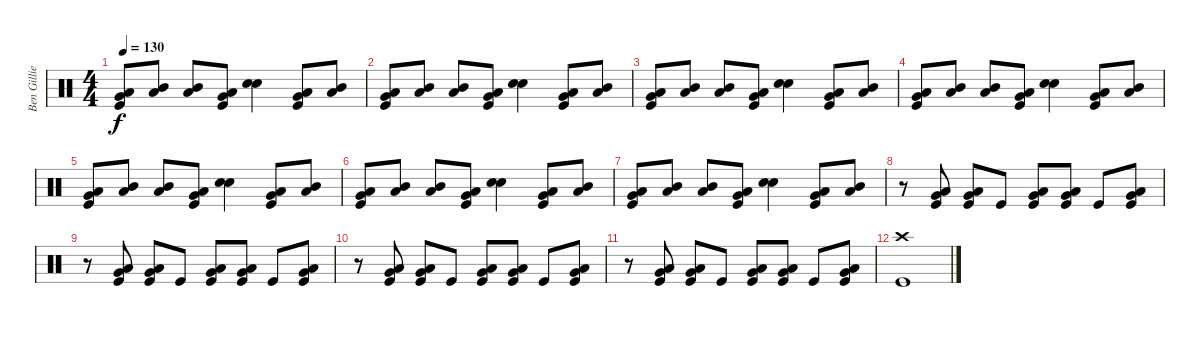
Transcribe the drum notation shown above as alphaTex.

\track ("Ben Gillies" "Ben Gillie") {instrument percussion}
\staff {score}
\articulation defaults
\ts (4 4)
\tempo 130
\clef neutral
\ks c
("Kick (hit)" "Very Low Tom (hit)" "Low Tom (hit)").8{dy f} ("Low Tom (hit)" "Mid Tom (hit)").8 ("Low Tom (hit)" "Mid Tom (hit)").8 ("Kick (hit)" "Very Low Tom (hit)" "Low Tom (hit)").8 ("Snare (hit) 2" "Snare (hit) 2").4{bu 60} ("Kick (hit)" "Very Low Tom (hit)" "Low Tom (hit)").8 ("Low Tom (hit)" "Mid Tom (hit)").8 |
("Kick (hit)" "Very Low Tom (hit)" "Low Tom (hit)").8 ("Low Tom (hit)" "Mid Tom (hit)").8 ("Low Tom (hit)" "Mid Tom (hit)").8 ("Kick (hit)" "Very Low Tom (hit)" "Low Tom (hit)").8 ("Snare (hit) 2" "Snare (hit) 2").4{bu 60} ("Kick (hit)" "Very Low Tom (hit)" "Low Tom (hit)").8 ("Low Tom (hit)" "Mid Tom (hit)").8 |
("Kick (hit)" "Very Low Tom (hit)" "Low Tom (hit)").8 ("Low Tom (hit)" "Mid Tom (hit)").8 ("Low Tom (hit)" "Mid Tom (hit)").8 ("Kick (hit)" "Very Low Tom (hit)" "Low Tom (hit)").8 ("Snare (hit) 2" "Snare (hit) 2").4{bu 60} ("Kick (hit)" "Very Low Tom (hit)" "Low Tom (hit)").8 ("Low Tom (hit)" "Mid Tom (hit)").8 |
("Kick (hit)" "Very Low Tom (hit)" "Low Tom (hit)").8 ("Low Tom (hit)" "Mid Tom (hit)").8 ("Low Tom (hit)" "Mid Tom (hit)").8 ("Kick (hit)" "Very Low Tom (hit)" "Low Tom (hit)").8 ("Snare (hit) 2" "Snare (hit) 2").4{bu 60} ("Kick (hit)" "Very Low Tom (hit)" "Low Tom (hit)").8 ("Low Tom (hit)" "Mid Tom (hit)").8 |
("Kick (hit)" "Very Low Tom (hit)" "Low Tom (hit)").8 ("Low Tom (hit)" "Mid Tom (hit)").8 ("Low Tom (hit)" "Mid Tom (hit)").8 ("Kick (hit)" "Very Low Tom (hit)" "Low Tom (hit)").8 ("Snare (hit) 2" "Snare (hit) 2").4{bu 60} ("Kick (hit)" "Very Low Tom (hit)" "Low Tom (hit)").8 ("Low Tom (hit)" "Mid Tom (hit)").8 |
("Kick (hit)" "Very Low Tom (hit)" "Low Tom (hit)").8 ("Low Tom (hit)" "Mid Tom (hit)").8 ("Low Tom (hit)" "Mid Tom (hit)").8 ("Kick (hit)" "Very Low Tom (hit)" "Low Tom (hit)").8 ("Snare (hit) 2" "Snare (hit) 2").4{bu 60} ("Kick (hit)" "Very Low Tom (hit)" "Low Tom (hit)").8 ("Low Tom (hit)" "Mid Tom (hit)").8 |
("Kick (hit)" "Very Low Tom (hit)" "Low Tom (hit)").8 ("Low Tom (hit)" "Mid Tom (hit)").8 ("Low Tom (hit)" "Mid Tom (hit)").8 ("Kick (hit)" "Very Low Tom (hit)" "Low Tom (hit)").8 ("Snare (hit) 2" "Snare (hit) 2").4{bu 60} ("Kick (hit)" "Very Low Tom (hit)" "Low Tom (hit)").8 ("Low Tom (hit)" "Mid Tom (hit)").8 |
r.8 ("Kick (hit)" "Very Low Tom (hit)" "Low Tom (hit)").8 ("Kick (hit)" "Very Low Tom (hit)" "Low Tom (hit)").8 "Kick (hit)".8 ("Kick (hit)" "Very Low Tom (hit)" "Low Tom (hit)").8 ("Kick (hit)" "Very Low Tom (hit)" "Low Tom (hit)").8 "Kick (hit)".8 ("Kick (hit)" "Very Low Tom (hit)" "Low Tom (hit)").8 |
r.8 ("Kick (hit)" "Very Low Tom (hit)" "Low Tom (hit)").8 ("Kick (hit)" "Very Low Tom (hit)" "Low Tom (hit)").8 "Kick (hit)".8 ("Kick (hit)" "Very Low Tom (hit)" "Low Tom (hit)").8 ("Kick (hit)" "Very Low Tom (hit)" "Low Tom (hit)").8 "Kick (hit)".8 ("Kick (hit)" "Very Low Tom (hit)" "Low Tom (hit)").8 |
r.8 ("Kick (hit)" "Very Low Tom (hit)" "Low Tom (hit)").8 ("Kick (hit)" "Very Low Tom (hit)" "Low Tom (hit)").8 "Kick (hit)".8 ("Kick (hit)" "Very Low Tom (hit)" "Low Tom (hit)").8 ("Kick (hit)" "Very Low Tom (hit)" "Low Tom (hit)").8 "Kick (hit)".8 ("Kick (hit)" "Very Low Tom (hit)" "Low Tom (hit)").8 |
r.8 ("Kick (hit)" "Very Low Tom (hit)" "Low Tom (hit)").8 ("Kick (hit)" "Very Low Tom (hit)" "Low Tom (hit)").8 "Kick (hit)".8 ("Kick (hit)" "Very Low Tom (hit)" "Low Tom (hit)").8 ("Kick (hit)" "Very Low Tom (hit)" "Low Tom (hit)").8 "Kick (hit)".8 ("Kick (hit)" "Very Low Tom (hit)" "Low Tom (hit)").8 |
("Kick (hit)" "Crash high (hit)").1
